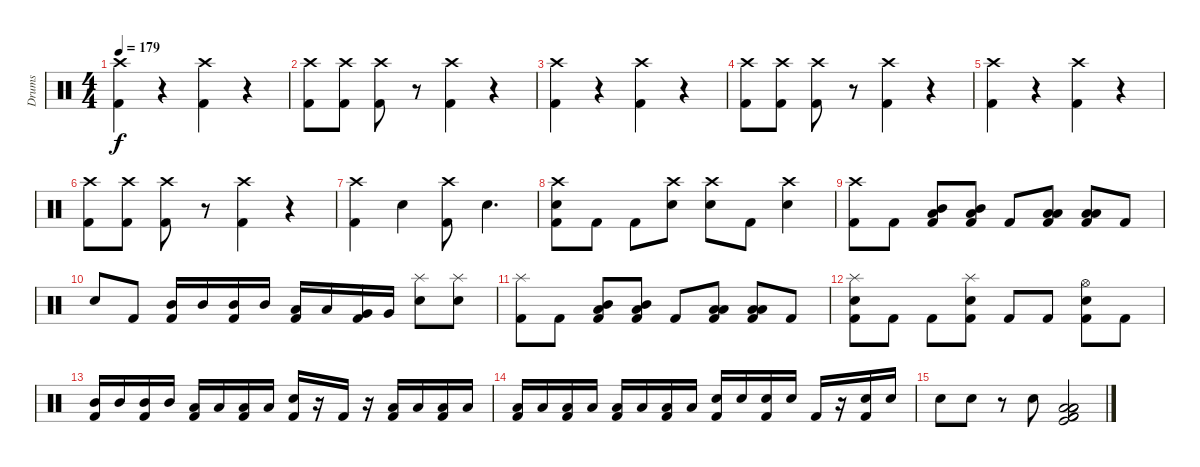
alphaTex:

\track ("Drums" "Drums") {instrument percussion}
\staff {score}
\articulation defaults
\ts (4 4)
\tempo 179
\clef neutral
\ks c
("Crash high (hit)" "Kick (hit) 2").4{dy f} r.4 ("Crash high (hit)" "Kick (hit) 2").4 r.4 |
("Crash high (hit)" "Kick (hit) 2").8 ("Crash high (hit)" "Kick (hit) 2").8 ("Crash high (hit)" "Kick (hit) 2").8 r.8 ("Crash high (hit)" "Kick (hit) 2").4 r.4 |
("Crash high (hit)" "Kick (hit) 2").4 r.4 ("Crash high (hit)" "Kick (hit) 2").4 r.4 |
("Crash high (hit)" "Kick (hit) 2").8 ("Crash high (hit)" "Kick (hit) 2").8 ("Crash high (hit)" "Kick (hit) 2").8 r.8 ("Crash high (hit)" "Kick (hit) 2").4 r.4 |
("Crash high (hit)" "Kick (hit) 2").4 r.4 ("Crash high (hit)" "Kick (hit) 2").4 r.4 |
("Crash high (hit)" "Kick (hit) 2").8 ("Crash high (hit)" "Kick (hit) 2").8 ("Crash high (hit)" "Kick (hit) 2").8 r.8 ("Crash high (hit)" "Kick (hit) 2").4 r.4 |
("Crash high (hit)" "Kick (hit) 2").4 "Snare (hit) 2".4 ("Crash high (hit)" "Kick (hit) 2").8 "Snare (hit) 2".4{d} |
("Crash high (hit)" "Snare (hit) 2" "Kick (hit) 2").8 "Kick (hit) 2".8 "Kick (hit) 2".8 ("Crash high (hit)" "Snare (hit) 2").8 ("Crash high (hit)" "Snare (hit) 2").8 "Kick (hit) 2".8 ("Crash high (hit)" "Snare (hit) 2").4 |
("Crash high (hit)" "Kick (hit) 2").8 "Kick (hit) 2".8 ("Mid Tom (hit)" "Low Floor Tom (hit)" "Kick (hit) 2").8 ("Mid Tom (hit)" "Low Floor Tom (hit)" "Kick (hit) 2").8 "Kick (hit) 2".8 ("Low Tom (hit)" "Low Floor Tom (hit)" "Kick (hit) 2").8 ("Low Tom (hit)" "Low Floor Tom (hit)" "Kick (hit) 2").8 "Kick (hit) 2".8 |
"Snare (hit) 2".8 "Kick (hit) 2".8 ("Mid Tom (hit)" "Kick (hit) 2").16 "Mid Tom (hit)".16 ("Mid Tom (hit)" "Kick (hit) 2").16 "Mid Tom (hit)".16 ("Low Tom (hit)" "Kick (hit) 2").16 "Low Tom (hit)".16 ("Very Low Tom (hit)" "Kick (hit) 2").16 "Very Low Tom (hit)".16 ("Splash (hit)" "Snare (hit) 2").8 ("Splash (hit)" "Snare (hit) 2").8 |
("Splash (hit)" "Kick (hit) 2").8 "Kick (hit) 2".8 ("Mid Tom (hit)" "Low Floor Tom (hit)" "Kick (hit) 2").8 ("Mid Tom (hit)" "Low Floor Tom (hit)" "Kick (hit) 2").8 "Kick (hit) 2".8 ("Low Tom (hit)" "Low Floor Tom (hit)" "Kick (hit) 2").8 ("Low Tom (hit)" "Low Floor Tom (hit)" "Kick (hit) 2").8 "Kick (hit) 2".8 |
("Splash (hit)" "Snare (hit) 2" "Kick (hit) 2").8 "Kick (hit) 2".8 "Kick (hit) 2".8 ("Splash (hit)" "Snare (hit) 2" "Kick (hit) 2").8 "Kick (hit) 2".8 "Kick (hit) 2".8 ("Hi-Hat (open)" "Snare (hit) 2" "Kick (hit) 2").8 "Kick (hit) 2".8 |
("Mid Tom (hit)" "Kick (hit) 2").16 "Mid Tom (hit)".16 ("Mid Tom (hit)" "Kick (hit) 2").16 "Mid Tom (hit)".16 ("Low Tom (hit)" "Kick (hit) 2").16 "Low Tom (hit)".16 ("Low Tom (hit)" "Kick (hit) 2").16 "Low Tom (hit)".16 ("Snare (hit) 2" "Kick (hit) 2").16 r.16 "Kick (hit) 2".16 r.16 ("Low Tom (hit)" "Kick (hit) 2").16 "Low Tom (hit)".16 ("Low Tom (hit)" "Kick (hit) 2").16 "Low Tom (hit)".16 |
("Low Floor Tom (hit)" "Kick (hit) 2").16 "Low Floor Tom (hit)".16 ("Low Floor Tom (hit)" "Kick (hit) 2").16 "Low Floor Tom (hit)".16 ("Low Tom (hit)" "Kick (hit) 2").16 "Low Tom (hit)".16 ("Low Tom (hit)" "Kick (hit) 2").16 "Low Tom (hit)".16 ("Snare (hit) 2" "Kick (hit) 2").16 "Snare (hit) 2".16 ("Snare (hit) 2" "Kick (hit) 2").16 "Snare (hit) 2".16 "Kick (hit) 2".16 r.16 ("Snare (hit) 2" "Kick (hit) 2").16 "Snare (hit) 2".16 |
"Snare (hit) 2".8 "Snare (hit) 2".8 r.8 "Snare (hit) 2".8 ("Kick (hit)" "Kick (hit) 2" "Low Tom (hit)" "Low Floor Tom (hit)" "Low Tom (hit)" "Kick (hit) 2").2
